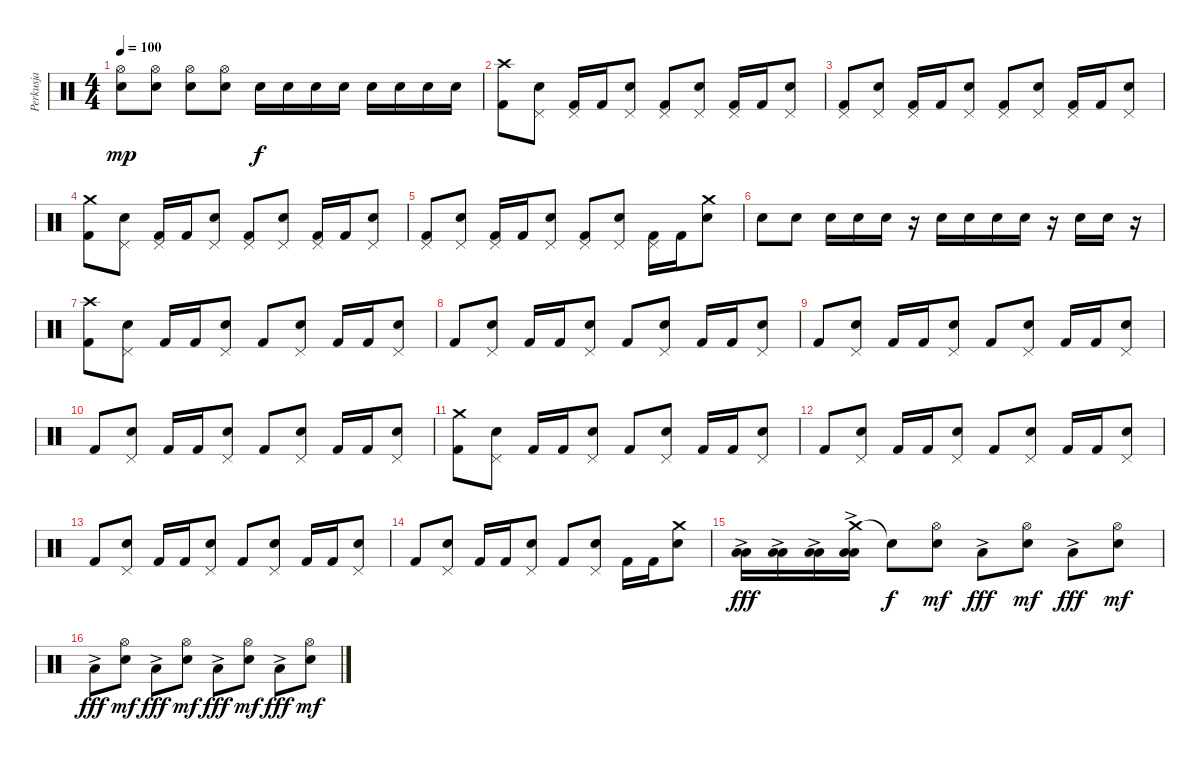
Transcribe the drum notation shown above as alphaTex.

\track ("Perkusja" "Perkusja") {instrument percussion}
\staff {score}
\articulation defaults
\ts (4 4)
\tempo 100
\clef neutral
\ks c
("Hi-Hat (open)" "Snare (hit) 2").8{dy mp} ("Hi-Hat (open)" "Snare (hit) 2").8 ("Hi-Hat (open)" "Snare (hit) 2").8 ("Hi-Hat (open)" "Snare (hit) 2").8 "Snare (hit) 2".16{dy f} "Snare (hit) 2".16 "Snare (hit) 2".16 "Snare (hit) 2".16 "Snare (hit) 2".16 "Snare (hit) 2".16 "Snare (hit) 2".16 "Snare (hit) 2".16 |
("Crash high (hit)" "Kick (hit) 2").8 ("Pedal Hi-Hat (hit)" "Snare (hit) 2").8 ("Pedal Hi-Hat (hit)" "Kick (hit) 2").16 "Kick (hit) 2".16 ("Pedal Hi-Hat (hit)" "Snare (hit) 2").8 ("Pedal Hi-Hat (hit)" "Kick (hit) 2").8 ("Pedal Hi-Hat (hit)" "Snare (hit) 2").8 ("Pedal Hi-Hat (hit)" "Kick (hit) 2").16 "Kick (hit) 2".16 ("Pedal Hi-Hat (hit)" "Snare (hit) 2").8 |
("Pedal Hi-Hat (hit)" "Kick (hit) 2").8 ("Pedal Hi-Hat (hit)" "Snare (hit) 2").8 ("Pedal Hi-Hat (hit)" "Kick (hit) 2").16 "Kick (hit) 2".16 ("Pedal Hi-Hat (hit)" "Snare (hit) 2").8 ("Pedal Hi-Hat (hit)" "Kick (hit) 2").8 ("Pedal Hi-Hat (hit)" "Snare (hit) 2").8 ("Pedal Hi-Hat (hit)" "Kick (hit) 2").16 "Kick (hit) 2".16 ("Pedal Hi-Hat (hit)" "Snare (hit) 2").8 |
("Crash medium (hit)" "Kick (hit) 2").8 ("Pedal Hi-Hat (hit)" "Snare (hit) 2").8 ("Pedal Hi-Hat (hit)" "Kick (hit) 2").16 "Kick (hit) 2".16 ("Pedal Hi-Hat (hit)" "Snare (hit) 2").8 ("Pedal Hi-Hat (hit)" "Kick (hit) 2").8 ("Pedal Hi-Hat (hit)" "Snare (hit) 2").8 ("Pedal Hi-Hat (hit)" "Kick (hit) 2").16 "Kick (hit) 2".16 ("Pedal Hi-Hat (hit)" "Snare (hit) 2").8 |
("Pedal Hi-Hat (hit)" "Kick (hit) 2").8 ("Pedal Hi-Hat (hit)" "Snare (hit) 2").8 ("Pedal Hi-Hat (hit)" "Kick (hit) 2").16 "Kick (hit) 2".16 ("Pedal Hi-Hat (hit)" "Snare (hit) 2").8 ("Pedal Hi-Hat (hit)" "Kick (hit) 2").8 ("Pedal Hi-Hat (hit)" "Snare (hit) 2").8 ("Pedal Hi-Hat (hit)" "Kick (hit) 2").16 "Kick (hit) 2".16 ("Crash medium (hit)" "Snare (hit) 2").8 |
"Snare (hit) 2".8 "Snare (hit) 2".8 "Snare (hit) 2".16 "Snare (hit) 2".16 "Snare (hit) 2".16 r.16 "Snare (hit) 2".16 "Snare (hit) 2".16 "Snare (hit) 2".16 "Snare (hit) 2".16 r.16 "Snare (hit) 2".16 "Snare (hit) 2".16 r.16 |
("Crash high (hit)" "Kick (hit) 2").8 ("Pedal Hi-Hat (hit)" "Snare (hit) 2").8 "Kick (hit) 2".16 "Kick (hit) 2".16 ("Pedal Hi-Hat (hit)" "Snare (hit) 2").8 "Kick (hit) 2".8 ("Pedal Hi-Hat (hit)" "Snare (hit) 2").8 "Kick (hit) 2".16 "Kick (hit) 2".16 ("Pedal Hi-Hat (hit)" "Snare (hit) 2").8 |
"Kick (hit) 2".8 ("Pedal Hi-Hat (hit)" "Snare (hit) 2").8 "Kick (hit) 2".16 "Kick (hit) 2".16 ("Pedal Hi-Hat (hit)" "Snare (hit) 2").8 "Kick (hit) 2".8 ("Pedal Hi-Hat (hit)" "Snare (hit) 2").8 "Kick (hit) 2".16 "Kick (hit) 2".16 ("Pedal Hi-Hat (hit)" "Snare (hit) 2").8 |
"Kick (hit) 2".8 ("Pedal Hi-Hat (hit)" "Snare (hit) 2").8 "Kick (hit) 2".16 "Kick (hit) 2".16 ("Pedal Hi-Hat (hit)" "Snare (hit) 2").8 "Kick (hit) 2".8 ("Pedal Hi-Hat (hit)" "Snare (hit) 2").8 "Kick (hit) 2".16 "Kick (hit) 2".16 ("Pedal Hi-Hat (hit)" "Snare (hit) 2").8 |
"Kick (hit) 2".8 ("Pedal Hi-Hat (hit)" "Snare (hit) 2").8 "Kick (hit) 2".16 "Kick (hit) 2".16 ("Pedal Hi-Hat (hit)" "Snare (hit) 2").8 "Kick (hit) 2".8 ("Pedal Hi-Hat (hit)" "Snare (hit) 2").8 "Kick (hit) 2".16 "Kick (hit) 2".16 ("Pedal Hi-Hat (hit)" "Snare (hit) 2").8 |
("Crash medium (hit)" "Kick (hit) 2").8 ("Pedal Hi-Hat (hit)" "Snare (hit) 2").8 "Kick (hit) 2".16 "Kick (hit) 2".16 ("Pedal Hi-Hat (hit)" "Snare (hit) 2").8 "Kick (hit) 2".8 ("Pedal Hi-Hat (hit)" "Snare (hit) 2").8 "Kick (hit) 2".16 "Kick (hit) 2".16 ("Pedal Hi-Hat (hit)" "Snare (hit) 2").8 |
"Kick (hit) 2".8 ("Pedal Hi-Hat (hit)" "Snare (hit) 2").8 "Kick (hit) 2".16 "Kick (hit) 2".16 ("Pedal Hi-Hat (hit)" "Snare (hit) 2").8 "Kick (hit) 2".8 ("Pedal Hi-Hat (hit)" "Snare (hit) 2").8 "Kick (hit) 2".16 "Kick (hit) 2".16 ("Pedal Hi-Hat (hit)" "Snare (hit) 2").8 |
"Kick (hit) 2".8 ("Pedal Hi-Hat (hit)" "Snare (hit) 2").8 "Kick (hit) 2".16 "Kick (hit) 2".16 ("Pedal Hi-Hat (hit)" "Snare (hit) 2").8 "Kick (hit) 2".8 ("Pedal Hi-Hat (hit)" "Snare (hit) 2").8 "Kick (hit) 2".16 "Kick (hit) 2".16 ("Pedal Hi-Hat (hit)" "Snare (hit) 2").8 |
"Kick (hit) 2".8 ("Pedal Hi-Hat (hit)" "Snare (hit) 2").8 "Kick (hit) 2".16 "Kick (hit) 2".16 ("Pedal Hi-Hat (hit)" "Snare (hit) 2").8 "Kick (hit) 2".8 ("Pedal Hi-Hat (hit)" "Snare (hit) 2").8 "Kick (hit) 2".16 "Kick (hit) 2".16 ("Crash medium (hit)" "Snare (hit) 2").8 |
("Low Tom (hit)"{ac} "Low Tom (hit)").16{dy fff} ("Low Tom (hit)"{ac} "Low Tom (hit)").16 ("Low Tom (hit)"{ac} "Low Tom (hit)").16 ("Crash medium (hit)" "Low Tom (hit)"{ac} "Low Tom (hit)").16 "Snare (hit)"{t}.8{dy f} ("Hi-Hat (open)" "Snare (hit) 2").8{dy mf} "Low Tom (hit)"{ac}.8{dy fff} ("Hi-Hat (open)" "Snare (hit) 2").8{dy mf} "Low Tom (hit)"{ac}.8{dy fff} ("Hi-Hat (open)" "Snare (hit) 2").8{dy mf} |
"Low Tom (hit)"{ac}.8{dy fff} ("Hi-Hat (open)" "Snare (hit) 2").8{dy mf} "Low Tom (hit)"{ac}.8{dy fff} ("Hi-Hat (open)" "Snare (hit) 2").8{dy mf} "Low Tom (hit)"{ac}.8{dy fff} ("Hi-Hat (open)" "Snare (hit) 2").8{dy mf} "Low Tom (hit)"{ac}.8{dy fff} ("Hi-Hat (open)" "Snare (hit) 2").8{dy mf}
